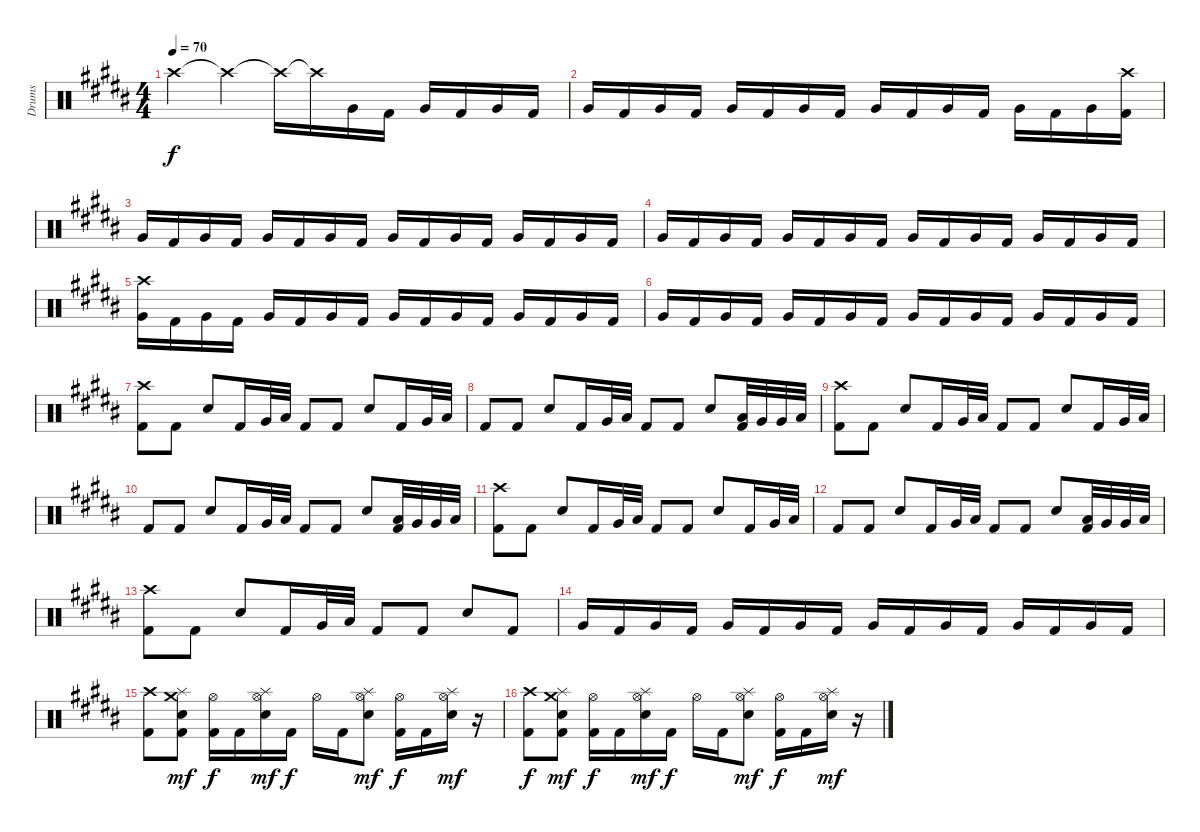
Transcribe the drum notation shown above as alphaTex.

\track ("Drums" "Drums") {instrument percussion}
\staff {score}
\articulation defaults
\ts (4 4)
\tempo 70
\clef neutral
\ks b "Crash high (hit)"{t}.4{dy f} "Crash high (hit)"{t}.4 "Crash high (hit)"{t}.16 "Crash high (hit)"{t}.16 "Very Low Tom (hit)".16 "Kick (hit) 2".16 "Very Low Tom (hit)".16 "Kick (hit) 2".16 "Very Low Tom (hit)".16 "Kick (hit) 2".16
|
"Very Low Tom (hit)".16 "Kick (hit) 2".16 "Very Low Tom (hit)".16 "Kick (hit) 2".16 "Very Low Tom (hit)".16 "Kick (hit) 2".16 "Very Low Tom (hit)".16 "Kick (hit) 2".16 "Very Low Tom (hit)".16 "Kick (hit) 2".16 "Very Low Tom (hit)".16 "Kick (hit) 2".16 "Very Low Tom (hit)".16 "Kick (hit) 2".16 "Very Low Tom (hit)".16 ("Crash high (hit)" "Kick (hit) 2").16 |
"Very Low Tom (hit)".16 "Kick (hit) 2".16 "Very Low Tom (hit)".16 "Kick (hit) 2".16 "Very Low Tom (hit)".16 "Kick (hit) 2".16 "Very Low Tom (hit)".16 "Kick (hit) 2".16 "Very Low Tom (hit)".16 "Kick (hit) 2".16 "Very Low Tom (hit)".16 "Kick (hit) 2".16 "Very Low Tom (hit)".16 "Kick (hit) 2".16 "Very Low Tom (hit)".16 "Kick (hit) 2".16 |
"Very Low Tom (hit)".16 "Kick (hit) 2".16 "Very Low Tom (hit)".16 "Kick (hit) 2".16 "Very Low Tom (hit)".16 "Kick (hit) 2".16 "Very Low Tom (hit)".16 "Kick (hit) 2".16 "Very Low Tom (hit)".16 "Kick (hit) 2".16 "Very Low Tom (hit)".16 "Kick (hit) 2".16 "Very Low Tom (hit)".16 "Kick (hit) 2".16 "Very Low Tom (hit)".16 "Kick (hit) 2".16 |
("Crash high (hit)" "Very Low Tom (hit)").16 "Kick (hit) 2".16 "Very Low Tom (hit)".16 "Kick (hit) 2".16 "Very Low Tom (hit)".16 "Kick (hit) 2".16 "Very Low Tom (hit)".16 "Kick (hit) 2".16 "Very Low Tom (hit)".16 "Kick (hit) 2".16 "Very Low Tom (hit)".16 "Kick (hit) 2".16 "Very Low Tom (hit)".16 "Kick (hit) 2".16 "Very Low Tom (hit)".16 "Kick (hit) 2".16 |
"Very Low Tom (hit)".16 "Kick (hit) 2".16 "Very Low Tom (hit)".16 "Kick (hit) 2".16 "Very Low Tom (hit)".16 "Kick (hit) 2".16 "Very Low Tom (hit)".16 "Kick (hit) 2".16 "Very Low Tom (hit)".16 "Kick (hit) 2".16 "Very Low Tom (hit)".16 "Kick (hit) 2".16 "Very Low Tom (hit)".16 "Kick (hit) 2".16 "Very Low Tom (hit)".16 "Kick (hit) 2".16 |
("Crash high (hit)" "Kick (hit) 2").8 "Kick (hit) 2".8 "Electric Snare (hit)".8 "Kick (hit) 2".16 "Very Low Tom (hit)".32 "Low Floor Tom (hit)".32 "Kick (hit) 2".8 "Kick (hit) 2".8 "Electric Snare (hit)".8 "Kick (hit) 2".16 "Very Low Tom (hit)".32 "Low Floor Tom (hit)".32 |
"Kick (hit) 2".8 "Kick (hit) 2".8 "Electric Snare (hit)".8 "Kick (hit) 2".16 "Very Low Tom (hit)".32 "Low Floor Tom (hit)".32 "Kick (hit) 2".8 "Kick (hit) 2".8 "Electric Snare (hit)".8 ("Low Tom (hit)" "Kick (hit) 2").32 "Very Low Tom (hit)".32 "Very Low Tom (hit)".32 "Low Floor Tom (hit)".32 |
("Crash high (hit)" "Kick (hit) 2").8 "Kick (hit) 2".8 "Electric Snare (hit)".8 "Kick (hit) 2".16 "Very Low Tom (hit)".32 "Low Floor Tom (hit)".32 "Kick (hit) 2".8 "Kick (hit) 2".8 "Electric Snare (hit)".8 "Kick (hit) 2".16 "Very Low Tom (hit)".32 "Low Floor Tom (hit)".32 |
"Kick (hit) 2".8 "Kick (hit) 2".8 "Electric Snare (hit)".8 "Kick (hit) 2".16 "Very Low Tom (hit)".32 "Low Floor Tom (hit)".32 "Kick (hit) 2".8 "Kick (hit) 2".8 "Electric Snare (hit)".8 ("Low Tom (hit)" "Kick (hit) 2").32 "Very Low Tom (hit)".32 "Very Low Tom (hit)".32 "Low Floor Tom (hit)".32 |
("Crash high (hit)" "Kick (hit) 2").8 "Kick (hit) 2".8 "Electric Snare (hit)".8 "Kick (hit) 2".16 "Very Low Tom (hit)".32 "Low Floor Tom (hit)".32 "Kick (hit) 2".8 "Kick (hit) 2".8 "Electric Snare (hit)".8 "Kick (hit) 2".16 "Very Low Tom (hit)".32 "Low Floor Tom (hit)".32 |
"Kick (hit) 2".8 "Kick (hit) 2".8 "Electric Snare (hit)".8 "Kick (hit) 2".16 "Very Low Tom (hit)".32 "Low Floor Tom (hit)".32 "Kick (hit) 2".8 "Kick (hit) 2".8 "Electric Snare (hit)".8 ("Low Tom (hit)" "Kick (hit) 2").32 "Very Low Tom (hit)".32 "Very Low Tom (hit)".32 "Low Floor Tom (hit)".32 |
("Crash high (hit)" "Kick (hit) 2").8 "Kick (hit) 2".8 "Electric Snare (hit)".8 "Kick (hit) 2".16 "Very Low Tom (hit)".32 "Low Floor Tom (hit)".32 "Kick (hit) 2".8 "Kick (hit) 2".8 "Electric Snare (hit)".8 "Kick (hit) 2".8 |
"Very Low Tom (hit)".16 "Kick (hit) 2".16 "Very Low Tom (hit)".16 "Kick (hit) 2".16 "Very Low Tom (hit)".16 "Kick (hit) 2".16 "Very Low Tom (hit)".16 "Kick (hit) 2".16 "Very Low Tom (hit)".16 "Kick (hit) 2".16 "Very Low Tom (hit)".16 "Kick (hit) 2".16 "Very Low Tom (hit)".16 "Kick (hit) 2".16 "Very Low Tom (hit)".16 "Kick (hit) 2".16 |
("Crash high (hit)" "Kick (hit) 2").8 ("Crash medium (hit)" "Splash (hit)" "Snare (hit) 2" "Kick (hit) 2").8{dy mf} ("Hi-Hat (open)" "Kick (hit) 2").16{dy f} "Kick (hit) 2".16 ("Hi-Hat (open)" "Splash (hit)" "Snare (hit) 2").16{dy mf} "Kick (hit) 2".16{dy f} "Hi-Hat (open)".16 "Kick (hit) 2".16 ("Hi-Hat (open)" "Splash (hit)" "Snare (hit) 2").8{dy mf} ("Hi-Hat (open)" "Kick (hit) 2").16{dy f} "Kick (hit) 2".16 ("Hi-Hat (open)" "Splash (hit)" "Snare (hit) 2").16{dy mf} r.16 |
("Crash high (hit)" "Kick (hit) 2").8{dy f} ("Crash medium (hit)" "Splash (hit)" "Snare (hit) 2" "Kick (hit) 2").8{dy mf} ("Hi-Hat (open)" "Kick (hit) 2").16{dy f} "Kick (hit) 2".16 ("Hi-Hat (open)" "Splash (hit)" "Snare (hit) 2").16{dy mf} "Kick (hit) 2".16{dy f} "Hi-Hat (open)".16 "Kick (hit) 2".16 ("Hi-Hat (open)" "Splash (hit)" "Snare (hit) 2").8{dy mf} ("Hi-Hat (open)" "Kick (hit) 2").16{dy f} "Kick (hit) 2".16 ("Hi-Hat (open)" "Splash (hit)" "Snare (hit) 2").16{dy mf} r.16
